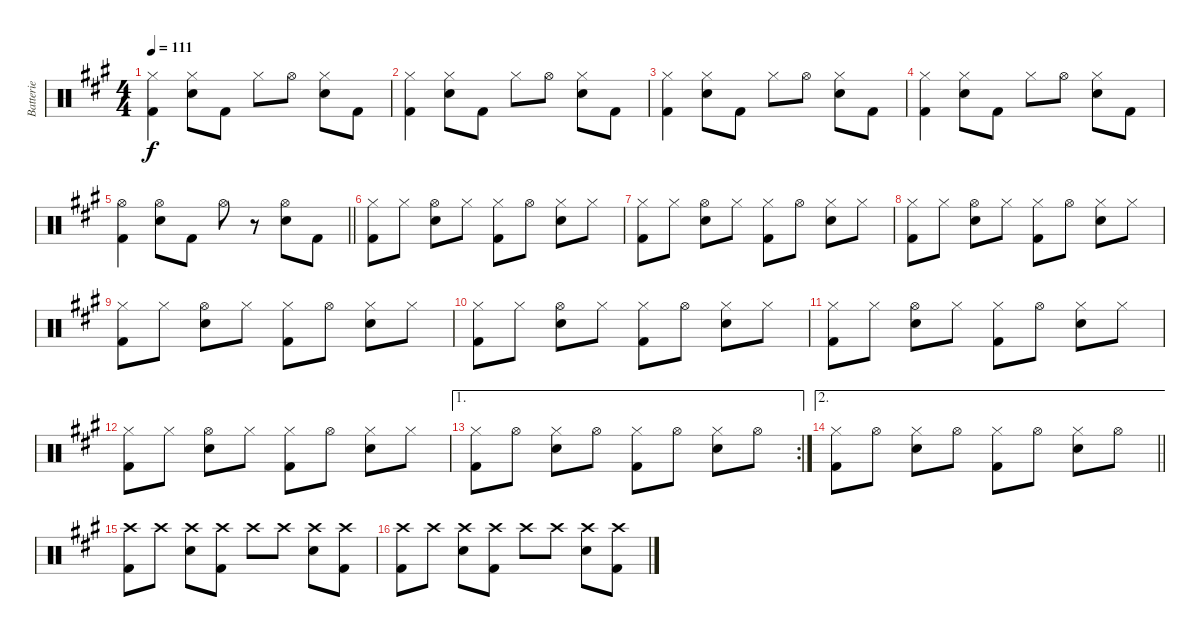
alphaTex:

\track ("Batterie" "Batterie") {instrument percussion}
\staff {score}
\articulation defaults
\ts (4 4)
\tempo 111
\clef neutral
\ks a
("Hi-Hat (closed)" "Kick (hit) 2").4{dy f} ("Hi-Hat (closed)" "Snare (hit) 2").8 "Kick (hit) 2".8 "Hi-Hat (closed)".8 "Hi-Hat (open)".8 ("Hi-Hat (closed)" "Snare (hit) 2").8 "Kick (hit) 2".8 |
("Hi-Hat (closed)" "Kick (hit) 2").4 ("Hi-Hat (closed)" "Snare (hit) 2").8 "Kick (hit) 2".8 "Hi-Hat (closed)".8 "Hi-Hat (open)".8 ("Hi-Hat (closed)" "Snare (hit) 2").8 "Kick (hit) 2".8 |
("Hi-Hat (closed)" "Kick (hit) 2").4 ("Hi-Hat (closed)" "Snare (hit) 2").8 "Kick (hit) 2".8 "Hi-Hat (closed)".8 "Hi-Hat (open)".8 ("Hi-Hat (closed)" "Snare (hit) 2").8 "Kick (hit) 2".8 |
("Hi-Hat (closed)" "Kick (hit) 2").4 ("Hi-Hat (closed)" "Snare (hit) 2").8 "Kick (hit) 2".8 "Hi-Hat (closed)".8 "Hi-Hat (open)".8 ("Hi-Hat (closed)" "Snare (hit) 2").8 "Kick (hit) 2".8 |
\barLineRight lightlight
("Hi-Hat (open)" "Kick (hit) 2").4 ("Hi-Hat (open)" "Snare (hit) 2").8 "Kick (hit) 2".8 "Hi-Hat (open)".8 r.8 ("Hi-Hat (open)" "Snare (hit) 2").8 "Kick (hit) 2".8 |
("Hi-Hat (closed)" "Kick (hit) 2").8 "Hi-Hat (closed)".8 ("Hi-Hat (open)" "Snare (hit) 2").8 "Hi-Hat (closed)".8 ("Hi-Hat (closed)" "Kick (hit) 2").8 "Hi-Hat (open)".8 ("Hi-Hat (closed)" "Snare (hit) 2").8 "Hi-Hat (closed)".8 |
("Hi-Hat (closed)" "Kick (hit) 2").8 "Hi-Hat (closed)".8 ("Hi-Hat (open)" "Snare (hit) 2").8 "Hi-Hat (closed)".8 ("Hi-Hat (closed)" "Kick (hit) 2").8 "Hi-Hat (open)".8 ("Hi-Hat (closed)" "Snare (hit) 2").8 "Hi-Hat (closed)".8 |
("Hi-Hat (closed)" "Kick (hit) 2").8 "Hi-Hat (closed)".8 ("Hi-Hat (open)" "Snare (hit) 2").8 "Hi-Hat (closed)".8 ("Hi-Hat (closed)" "Kick (hit) 2").8 "Hi-Hat (open)".8 ("Hi-Hat (closed)" "Snare (hit) 2").8 "Hi-Hat (closed)".8 |
("Hi-Hat (closed)" "Kick (hit) 2").8 "Hi-Hat (closed)".8 ("Hi-Hat (open)" "Snare (hit) 2").8 "Hi-Hat (closed)".8 ("Hi-Hat (closed)" "Kick (hit) 2").8 "Hi-Hat (open)".8 ("Hi-Hat (closed)" "Snare (hit) 2").8 "Hi-Hat (closed)".8 |
("Hi-Hat (closed)" "Kick (hit) 2").8 "Hi-Hat (closed)".8 ("Hi-Hat (open)" "Snare (hit) 2").8 "Hi-Hat (closed)".8 ("Hi-Hat (closed)" "Kick (hit) 2").8 "Hi-Hat (open)".8 ("Hi-Hat (closed)" "Snare (hit) 2").8 "Hi-Hat (closed)".8 |
("Hi-Hat (closed)" "Kick (hit) 2").8 "Hi-Hat (closed)".8 ("Hi-Hat (open)" "Snare (hit) 2").8 "Hi-Hat (closed)".8 ("Hi-Hat (closed)" "Kick (hit) 2").8 "Hi-Hat (open)".8 ("Hi-Hat (closed)" "Snare (hit) 2").8 "Hi-Hat (closed)".8 |
("Hi-Hat (closed)" "Kick (hit) 2").8 "Hi-Hat (closed)".8 ("Hi-Hat (open)" "Snare (hit) 2").8 "Hi-Hat (closed)".8 ("Hi-Hat (closed)" "Kick (hit) 2").8 "Hi-Hat (open)".8 ("Hi-Hat (closed)" "Snare (hit) 2").8 "Hi-Hat (closed)".8 |
\ae 1
\rc 2
("Hi-Hat (closed)" "Kick (hit) 2").8 "Hi-Hat (open)".8 ("Hi-Hat (closed)" "Snare (hit) 2").8 "Hi-Hat (open)".8 ("Hi-Hat (closed)" "Kick (hit) 2").8 "Hi-Hat (open)".8 ("Hi-Hat (closed)" "Snare (hit) 2").8 "Hi-Hat (open)".8 |
\ae 2
\barLineRight lightlight
("Hi-Hat (closed)" "Kick (hit) 2").8 "Hi-Hat (open)".8 ("Hi-Hat (closed)" "Snare (hit) 2").8 "Hi-Hat (open)".8 ("Hi-Hat (closed)" "Kick (hit) 2").8 "Hi-Hat (open)".8 ("Hi-Hat (closed)" "Snare (hit) 2").8 "Hi-Hat (open)".8 |
("Crash high (hit)" "Kick (hit) 2").8 "Crash high (hit)".8 ("Crash high (hit)" "Snare (hit) 2").8 ("Crash high (hit)" "Kick (hit) 2").8 "Crash high (hit)".8 "Crash high (hit)".8 ("Crash high (hit)" "Snare (hit) 2").8 ("Crash high (hit)" "Kick (hit) 2").8 |
("Crash high (hit)" "Kick (hit) 2").8 "Crash high (hit)".8 ("Crash high (hit)" "Snare (hit) 2").8 ("Crash high (hit)" "Kick (hit) 2").8 "Crash high (hit)".8 "Crash high (hit)".8 ("Crash high (hit)" "Snare (hit) 2").8 ("Crash high (hit)" "Kick (hit) 2").8
